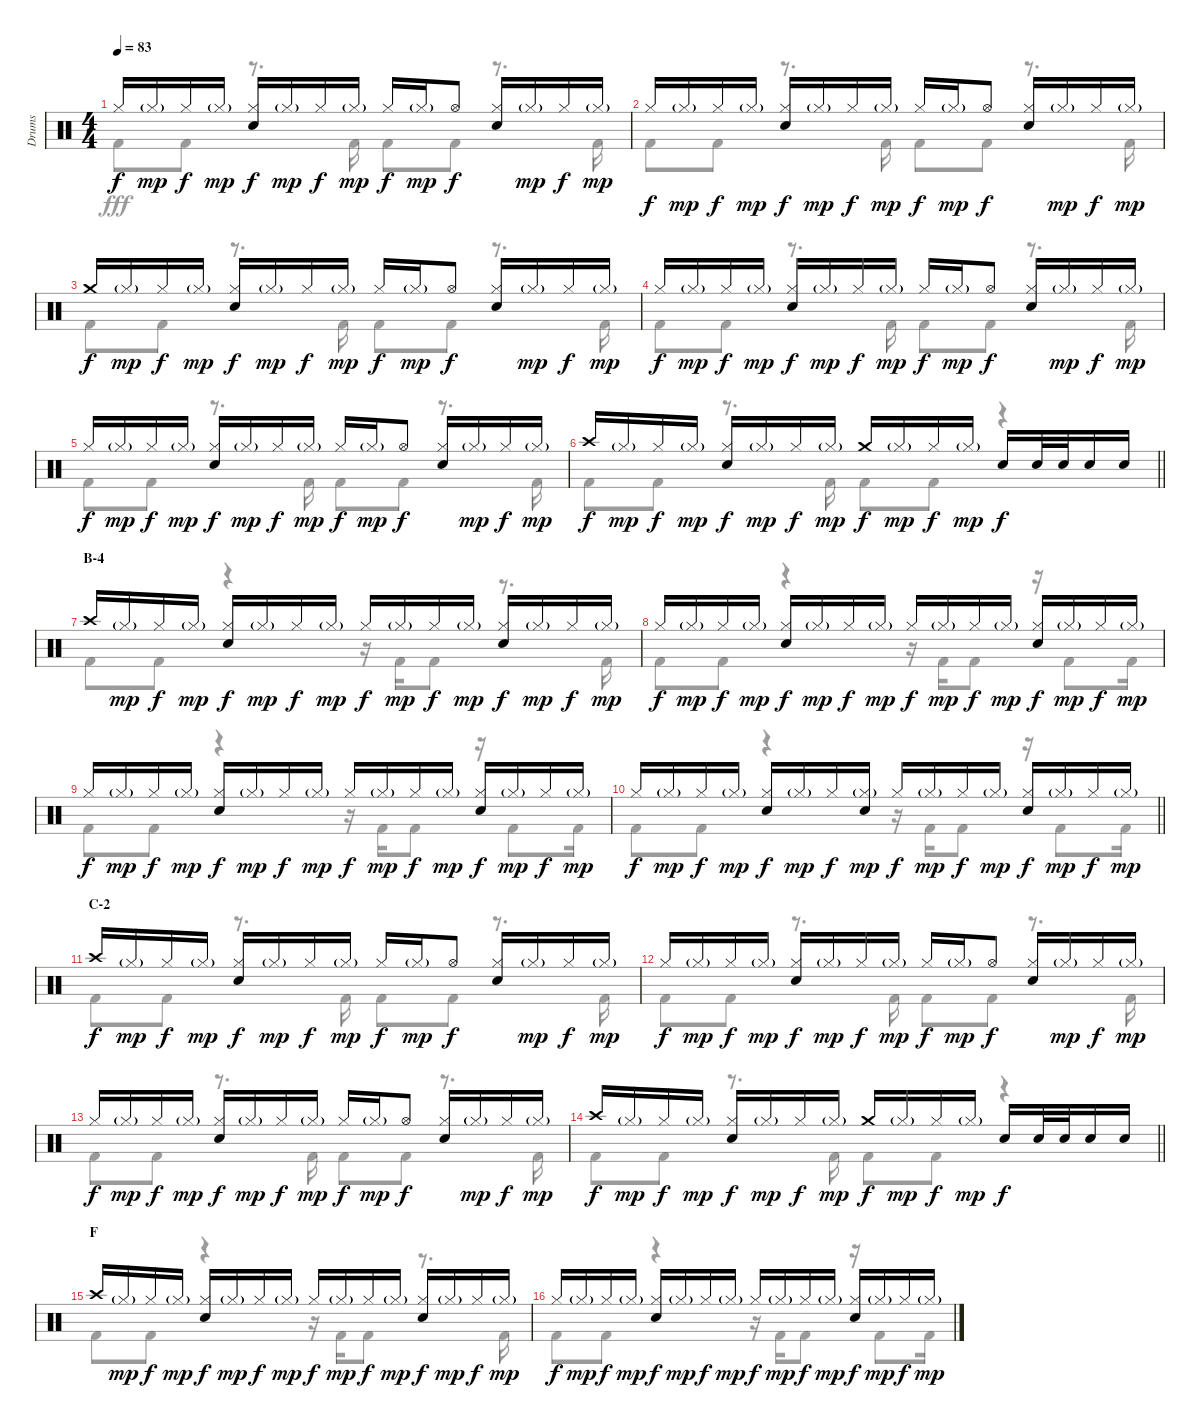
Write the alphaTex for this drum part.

\track ("Drums" "Drums") {instrument percussion}
\staff {score}
\articulation defaults
\voice
\ts (4 4)
\tempo 83
\clef neutral
\ks c "Hi-Hat (closed)".16{dy f} "Hi-Hat (closed)"{g}.16{dy mp} "Hi-Hat (closed)".16{dy f} "Hi-Hat (closed)"{g}.16{dy mp}
("Hi-Hat (closed)" "Snare (hit) 2").16{dy f} "Hi-Hat (closed)"{g}.16{dy mp} "Hi-Hat (closed)".16{dy f} "Hi-Hat (closed)"{g}.16{dy mp} "Hi-Hat (closed)".16{dy f} "Hi-Hat (closed)"{g}.16{dy mp} "Hi-Hat (open)".8{dy f} ("Hi-Hat (closed)" "Snare (hit) 2").16 "Hi-Hat (closed)"{g}.16{dy mp} "Hi-Hat (closed)".16{dy f} "Hi-Hat (closed)"{g}.16{dy mp} |
"Hi-Hat (closed)".16{dy f} "Hi-Hat (closed)"{g}.16{dy mp} "Hi-Hat (closed)".16{dy f} "Hi-Hat (closed)"{g}.16{dy mp} ("Hi-Hat (closed)" "Snare (hit) 2").16{dy f} "Hi-Hat (closed)"{g}.16{dy mp} "Hi-Hat (closed)".16{dy f} "Hi-Hat (closed)"{g}.16{dy mp} "Hi-Hat (closed)".16{dy f} "Hi-Hat (closed)"{g}.16{dy mp} "Hi-Hat (open)".8{dy f} ("Hi-Hat (closed)" "Snare (hit) 2").16 "Hi-Hat (closed)"{g}.16{dy mp} "Hi-Hat (closed)".16{dy f} "Hi-Hat (closed)"{g}.16{dy mp} |
"Crash medium (hit)".16{dy f} "Hi-Hat (closed)"{g}.16{dy mp} "Hi-Hat (closed)".16{dy f} "Hi-Hat (closed)"{g}.16{dy mp} ("Hi-Hat (closed)" "Snare (hit) 2").16{dy f} "Hi-Hat (closed)"{g}.16{dy mp} "Hi-Hat (closed)".16{dy f} "Hi-Hat (closed)"{g}.16{dy mp} "Hi-Hat (closed)".16{dy f} "Hi-Hat (closed)"{g}.16{dy mp} "Hi-Hat (open)".8{dy f} ("Hi-Hat (closed)" "Snare (hit) 2").16 "Hi-Hat (closed)"{g}.16{dy mp} "Hi-Hat (closed)".16{dy f} "Hi-Hat (closed)"{g}.16{dy mp} |
"Hi-Hat (closed)".16{dy f} "Hi-Hat (closed)"{g}.16{dy mp} "Hi-Hat (closed)".16{dy f} "Hi-Hat (closed)"{g}.16{dy mp} ("Hi-Hat (closed)" "Snare (hit) 2").16{dy f} "Hi-Hat (closed)"{g}.16{dy mp} "Hi-Hat (closed)".16{dy f} "Hi-Hat (closed)"{g}.16{dy mp} "Hi-Hat (closed)".16{dy f} "Hi-Hat (closed)"{g}.16{dy mp} "Hi-Hat (open)".8{dy f} ("Hi-Hat (closed)" "Snare (hit) 2").16 "Hi-Hat (closed)"{g}.16{dy mp} "Hi-Hat (closed)".16{dy f} "Hi-Hat (closed)"{g}.16{dy mp} |
"Hi-Hat (closed)".16{dy f} "Hi-Hat (closed)"{g}.16{dy mp} "Hi-Hat (closed)".16{dy f} "Hi-Hat (closed)"{g}.16{dy mp} ("Hi-Hat (closed)" "Snare (hit) 2").16{dy f} "Hi-Hat (closed)"{g}.16{dy mp} "Hi-Hat (closed)".16{dy f} "Hi-Hat (closed)"{g}.16{dy mp} "Hi-Hat (closed)".16{dy f} "Hi-Hat (closed)"{g}.16{dy mp} "Hi-Hat (open)".8{dy f} ("Hi-Hat (closed)" "Snare (hit) 2").16 "Hi-Hat (closed)"{g}.16{dy mp} "Hi-Hat (closed)".16{dy f} "Hi-Hat (closed)"{g}.16{dy mp} |
\barLineRight lightlight "Crash high (hit)".16{dy f} "Hi-Hat (closed)"{g}.16{dy mp} "Hi-Hat (closed)".16{dy f} "Hi-Hat (closed)"{g}.16{dy mp}
("Hi-Hat (closed)" "Snare (hit) 2").16{dy f} "Hi-Hat (closed)"{g}.16{dy mp} "Hi-Hat (closed)".16{dy f} "Hi-Hat (closed)"{g}.16{dy mp} "Crash medium (hit)".16{dy f} "Hi-Hat (closed)"{g}.16{dy mp} "Hi-Hat (closed)".16{dy f} "Hi-Hat (closed)"{g}.16{dy mp} "Snare (hit) 2".16{dy f} "Snare (hit) 2".32 "Snare (hit) 2".32 "Snare (hit) 2".16 "Snare (hit) 2".16 |
\section ("" "B-4")
"Crash high (hit)".16 "Hi-Hat (closed)"{g}.16{dy mp} "Hi-Hat (closed)".16{dy f} "Hi-Hat (closed)"{g}.16{dy mp} ("Hi-Hat (closed)" "Snare (hit) 2").16{dy f} "Hi-Hat (closed)"{g}.16{dy mp} "Hi-Hat (closed)".16{dy f} "Hi-Hat (closed)"{g}.16{dy mp} "Hi-Hat (closed)".16{dy f} "Hi-Hat (closed)"{g}.16{dy mp} "Hi-Hat (closed)".16{dy f} "Hi-Hat (closed)"{g}.16{dy mp} ("Hi-Hat (closed)" "Snare (hit) 2").16{dy f} "Hi-Hat (closed)"{g}.16{dy mp} "Hi-Hat (closed)".16{dy f} "Hi-Hat (closed)"{g}.16{dy mp} |
"Hi-Hat (closed)".16{dy f} "Hi-Hat (closed)"{g}.16{dy mp} "Hi-Hat (closed)".16{dy f} "Hi-Hat (closed)"{g}.16{dy mp} ("Hi-Hat (closed)" "Snare (hit) 2").16{dy f} "Hi-Hat (closed)"{g}.16{dy mp} "Hi-Hat (closed)".16{dy f} "Hi-Hat (closed)"{g}.16{dy mp} "Hi-Hat (closed)".16{dy f} "Hi-Hat (closed)"{g}.16{dy mp} "Hi-Hat (closed)".16{dy f} "Hi-Hat (closed)"{g}.16{dy mp} ("Hi-Hat (closed)" "Snare (hit) 2").16{dy f} "Hi-Hat (closed)"{g}.16{dy mp} "Hi-Hat (closed)".16{dy f} "Hi-Hat (closed)"{g}.16{dy mp} |
"Hi-Hat (closed)".16{dy f} "Hi-Hat (closed)"{g}.16{dy mp} "Hi-Hat (closed)".16{dy f} "Hi-Hat (closed)"{g}.16{dy mp} ("Hi-Hat (closed)" "Snare (hit) 2").16{dy f} "Hi-Hat (closed)"{g}.16{dy mp} "Hi-Hat (closed)".16{dy f} "Hi-Hat (closed)"{g}.16{dy mp} "Hi-Hat (closed)".16{dy f} "Hi-Hat (closed)"{g}.16{dy mp} "Hi-Hat (closed)".16{dy f} "Hi-Hat (closed)"{g}.16{dy mp} ("Hi-Hat (closed)" "Snare (hit) 2").16{dy f} "Hi-Hat (closed)"{g}.16{dy mp} "Hi-Hat (closed)".16{dy f} "Hi-Hat (closed)"{g}.16{dy mp} |
\barLineRight lightlight "Hi-Hat (closed)".16{dy f} "Hi-Hat (closed)"{g}.16{dy mp} "Hi-Hat (closed)".16{dy f} "Hi-Hat (closed)"{g}.16{dy mp}
("Hi-Hat (closed)" "Snare (hit) 2").16{dy f} "Hi-Hat (closed)"{g}.16{dy mp} "Hi-Hat (closed)".16{dy f} ("Hi-Hat (closed)"{g} "Snare (hit) 2").16{dy mp} "Hi-Hat (closed)".16{dy f} "Hi-Hat (closed)"{g}.16{dy mp} "Hi-Hat (closed)".16{dy f} "Hi-Hat (closed)"{g}.16{dy mp} ("Hi-Hat (closed)" "Snare (hit) 2").16{dy f} "Hi-Hat (closed)"{g}.16{dy mp} "Hi-Hat (closed)".16{dy f} "Hi-Hat (closed)"{g}.16{dy mp} |
\section ("" "C-2")
"Crash high (hit)".16{dy f} "Hi-Hat (closed)"{g}.16{dy mp} "Hi-Hat (closed)".16{dy f} "Hi-Hat (closed)"{g}.16{dy mp} ("Hi-Hat (closed)" "Snare (hit) 2").16{dy f} "Hi-Hat (closed)"{g}.16{dy mp} "Hi-Hat (closed)".16{dy f} "Hi-Hat (closed)"{g}.16{dy mp} "Hi-Hat (closed)".16{dy f} "Hi-Hat (closed)"{g}.16{dy mp} "Hi-Hat (open)".8{dy f} ("Hi-Hat (closed)" "Snare (hit) 2").16 "Hi-Hat (closed)"{g}.16{dy mp} "Hi-Hat (closed)".16{dy f} "Hi-Hat (closed)"{g}.16{dy mp} |
"Hi-Hat (closed)".16{dy f} "Hi-Hat (closed)"{g}.16{dy mp} "Hi-Hat (closed)".16{dy f} "Hi-Hat (closed)"{g}.16{dy mp} ("Hi-Hat (closed)" "Snare (hit) 2").16{dy f} "Hi-Hat (closed)"{g}.16{dy mp} "Hi-Hat (closed)".16{dy f} "Hi-Hat (closed)"{g}.16{dy mp} "Hi-Hat (closed)".16{dy f} "Hi-Hat (closed)"{g}.16{dy mp} "Hi-Hat (open)".8{dy f} ("Hi-Hat (closed)" "Snare (hit) 2").16 "Hi-Hat (closed)"{g}.16{dy mp} "Hi-Hat (closed)".16{dy f} "Hi-Hat (closed)"{g}.16{dy mp} |
"Hi-Hat (closed)".16{dy f} "Hi-Hat (closed)"{g}.16{dy mp} "Hi-Hat (closed)".16{dy f} "Hi-Hat (closed)"{g}.16{dy mp} ("Hi-Hat (closed)" "Snare (hit) 2").16{dy f} "Hi-Hat (closed)"{g}.16{dy mp} "Hi-Hat (closed)".16{dy f} "Hi-Hat (closed)"{g}.16{dy mp} "Hi-Hat (closed)".16{dy f} "Hi-Hat (closed)"{g}.16{dy mp} "Hi-Hat (open)".8{dy f} ("Hi-Hat (closed)" "Snare (hit) 2").16 "Hi-Hat (closed)"{g}.16{dy mp} "Hi-Hat (closed)".16{dy f} "Hi-Hat (closed)"{g}.16{dy mp} |
\barLineRight lightlight "Crash high (hit)".16{dy f} "Hi-Hat (closed)"{g}.16{dy mp} "Hi-Hat (closed)".16{dy f} "Hi-Hat (closed)"{g}.16{dy mp}
("Hi-Hat (closed)" "Snare (hit) 2").16{dy f} "Hi-Hat (closed)"{g}.16{dy mp} "Hi-Hat (closed)".16{dy f} "Hi-Hat (closed)"{g}.16{dy mp} "Crash medium (hit)".16{dy f} "Hi-Hat (closed)"{g}.16{dy mp} "Hi-Hat (closed)".16{dy f} "Hi-Hat (closed)"{g}.16{dy mp} "Snare (hit) 2".16{dy f} "Snare (hit) 2".32 "Snare (hit) 2".32 "Snare (hit) 2".16 "Snare (hit) 2".16 |
\section ("" "F")
"Crash high (hit)".16 "Hi-Hat (closed)"{g}.16{dy mp} "Hi-Hat (closed)".16{dy f} "Hi-Hat (closed)"{g}.16{dy mp} ("Hi-Hat (closed)" "Snare (hit) 2").16{dy f} "Hi-Hat (closed)"{g}.16{dy mp} "Hi-Hat (closed)".16{dy f} "Hi-Hat (closed)"{g}.16{dy mp} "Hi-Hat (closed)".16{dy f} "Hi-Hat (closed)"{g}.16{dy mp} "Hi-Hat (closed)".16{dy f} "Hi-Hat (closed)"{g}.16{dy mp} ("Hi-Hat (closed)" "Snare (hit) 2").16{dy f} "Hi-Hat (closed)"{g}.16{dy mp} "Hi-Hat (closed)".16{dy f} "Hi-Hat (closed)"{g}.16{dy mp} |
"Hi-Hat (closed)".16{dy f} "Hi-Hat (closed)"{g}.16{dy mp} "Hi-Hat (closed)".16{dy f} "Hi-Hat (closed)"{g}.16{dy mp} ("Hi-Hat (closed)" "Snare (hit) 2").16{dy f} "Hi-Hat (closed)"{g}.16{dy mp} "Hi-Hat (closed)".16{dy f} "Hi-Hat (closed)"{g}.16{dy mp} "Hi-Hat (closed)".16{dy f} "Hi-Hat (closed)"{g}.16{dy mp} "Hi-Hat (closed)".16{dy f} "Hi-Hat (closed)"{g}.16{dy mp} ("Hi-Hat (closed)" "Snare (hit) 2").16{dy f} "Hi-Hat (closed)"{g}.16{dy mp} "Hi-Hat (closed)".16{dy f} "Hi-Hat (closed)"{g}.16{dy mp}
\voice
\clef neutral
\ottava regular
\simile none
\ks c "Kick (hit) 2".8{dy fff} "Kick (hit) 2".8
r.8{d} "Kick (hit) 2".16 "Kick (hit) 2".8 "Kick (hit) 2".8 r.8{d} "Kick (hit) 2".16 |
"Kick (hit) 2".8 "Kick (hit) 2".8 r.8{d} "Kick (hit) 2".16 "Kick (hit) 2".8 "Kick (hit) 2".8 r.8{d} "Kick (hit) 2".16 |
"Kick (hit) 2".8 "Kick (hit) 2".8 r.8{d} "Kick (hit) 2".16 "Kick (hit) 2".8 "Kick (hit) 2".8 r.8{d} "Kick (hit) 2".16 |
"Kick (hit) 2".8 "Kick (hit) 2".8 r.8{d} "Kick (hit) 2".16 "Kick (hit) 2".8 "Kick (hit) 2".8 r.8{d} "Kick (hit) 2".16 |
"Kick (hit) 2".8 "Kick (hit) 2".8 r.8{d} "Kick (hit) 2".16 "Kick (hit) 2".8 "Kick (hit) 2".8 r.8{d} "Kick (hit) 2".16 |
\barLineRight lightlight "Kick (hit) 2".8 "Kick (hit) 2".8
r.8{d} "Kick (hit) 2".16 "Kick (hit) 2".8 "Kick (hit) 2".8 r.4 |
"Kick (hit) 2".8 "Kick (hit) 2".8 r.4 r.16 "Kick (hit) 2".16 "Kick (hit) 2".8 r.8{d} "Kick (hit) 2".16 |
"Kick (hit) 2".8 "Kick (hit) 2".8 r.4 r.16 "Kick (hit) 2".16 "Kick (hit) 2".8 r.16 "Kick (hit) 2".8 "Kick (hit) 2".16 |
"Kick (hit) 2".8 "Kick (hit) 2".8 r.4 r.16 "Kick (hit) 2".16 "Kick (hit) 2".8 r.16 "Kick (hit) 2".8 "Kick (hit) 2".16 |
\barLineRight lightlight "Kick (hit) 2".8 "Kick (hit) 2".8
r.4 r.16 "Kick (hit) 2".16 "Kick (hit) 2".8 r.16 "Kick (hit) 2".8 "Kick (hit) 2".16 |
"Kick (hit) 2".8 "Kick (hit) 2".8 r.8{d} "Kick (hit) 2".16 "Kick (hit) 2".8 "Kick (hit) 2".8 r.8{d} "Kick (hit) 2".16 |
"Kick (hit) 2".8 "Kick (hit) 2".8 r.8{d} "Kick (hit) 2".16 "Kick (hit) 2".8 "Kick (hit) 2".8 r.8{d} "Kick (hit) 2".16 |
"Kick (hit) 2".8 "Kick (hit) 2".8 r.8{d} "Kick (hit) 2".16 "Kick (hit) 2".8 "Kick (hit) 2".8 r.8{d} "Kick (hit) 2".16 |
\barLineRight lightlight "Kick (hit) 2".8 "Kick (hit) 2".8
r.8{d} "Kick (hit) 2".16 "Kick (hit) 2".8 "Kick (hit) 2".8 r.4 |
"Kick (hit) 2".8 "Kick (hit) 2".8 r.4 r.16 "Kick (hit) 2".16 "Kick (hit) 2".8 r.8{d} "Kick (hit) 2".16 |
"Kick (hit) 2".8 "Kick (hit) 2".8 r.4 r.16 "Kick (hit) 2".16 "Kick (hit) 2".8 r.16 "Kick (hit) 2".8 "Kick (hit) 2".16
